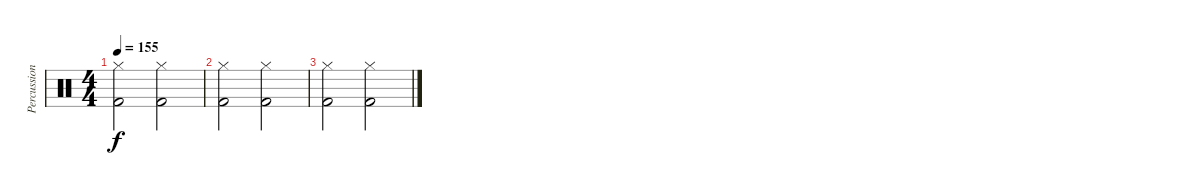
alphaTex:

\track ("Percussion" "Percussion") {instrument percussion}
\staff {score}
\articulation defaults
\ts (4 4)
\tempo 155
\clef neutral
\ks c
("Kick (hit) 2" "Hi-Hat (closed)").2{dy f} ("Kick (hit) 2" "Hi-Hat (closed)").2 |
("Kick (hit) 2" "Hi-Hat (closed)").2 ("Kick (hit) 2" "Hi-Hat (closed)").2 |
("Kick (hit) 2" "Hi-Hat (closed)").2 ("Kick (hit) 2" "Hi-Hat (closed)").2
